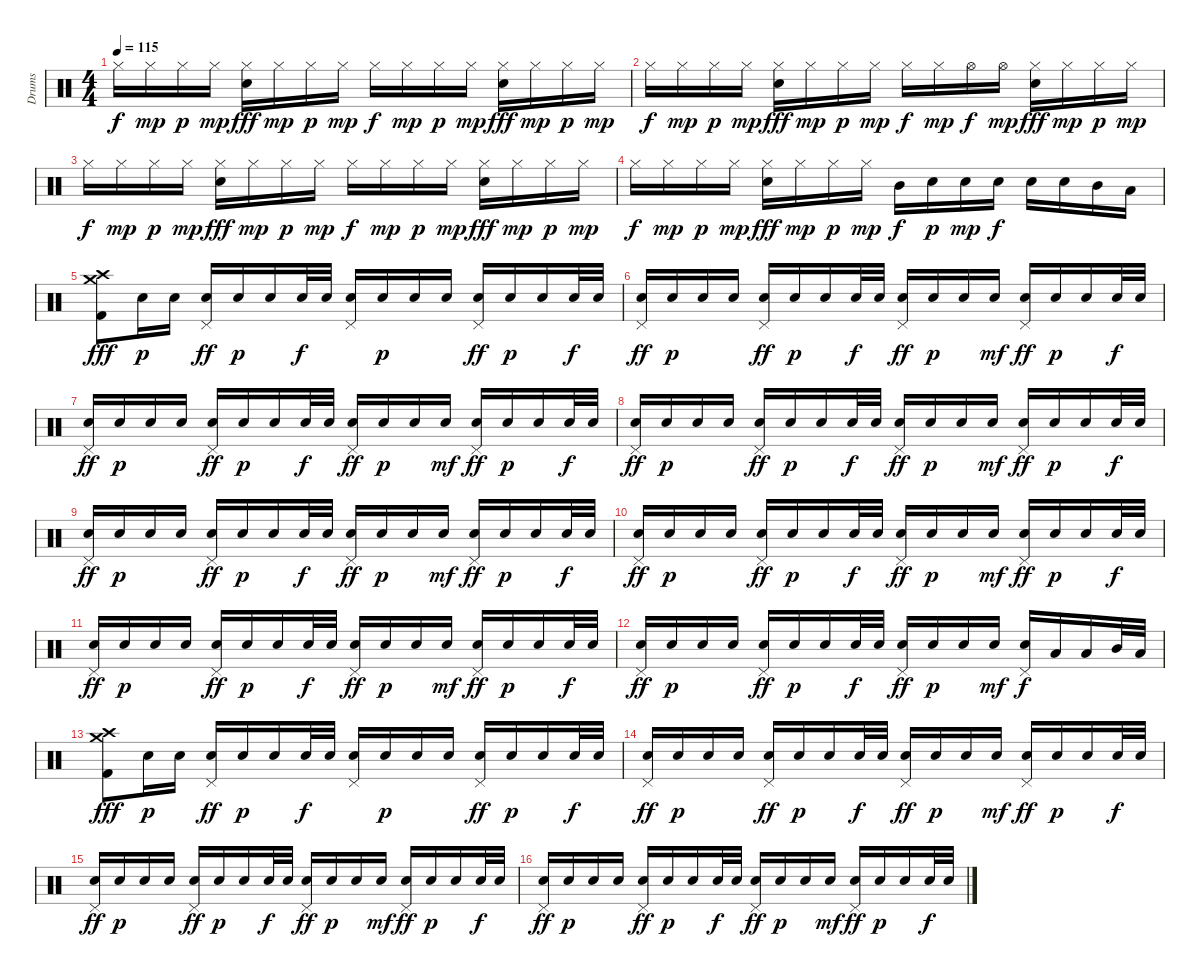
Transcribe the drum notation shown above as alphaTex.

\track ("Drums" "Drums") {instrument percussion}
\staff {score}
\articulation defaults
\ts (4 4)
\tempo 115
\clef neutral
\ks c "Hi-Hat (closed)".16{dy f} "Hi-Hat (closed)".16{dy mp} "Hi-Hat (closed)".16{dy p} "Hi-Hat (closed)".16{dy mp}
("Hi-Hat (closed)" "Electric Snare (hit)").16{dy fff} "Hi-Hat (closed)".16{dy mp} "Hi-Hat (closed)".16{dy p} "Hi-Hat (closed)".16{dy mp} "Hi-Hat (closed)".16{dy f} "Hi-Hat (closed)".16{dy mp} "Hi-Hat (closed)".16{dy p} "Hi-Hat (closed)".16{dy mp} ("Hi-Hat (closed)" "Electric Snare (hit)").16{dy fff} "Hi-Hat (closed)".16{dy mp} "Hi-Hat (closed)".16{dy p} "Hi-Hat (closed)".16{dy mp} |
"Hi-Hat (closed)".16{dy f} "Hi-Hat (closed)".16{dy mp} "Hi-Hat (closed)".16{dy p} "Hi-Hat (closed)".16{dy mp} ("Hi-Hat (closed)" "Electric Snare (hit)").16{dy fff} "Hi-Hat (closed)".16{dy mp} "Hi-Hat (closed)".16{dy p} "Hi-Hat (closed)".16{dy mp} "Hi-Hat (closed)".16{dy f} "Hi-Hat (closed)".16{dy mp} "Hi-Hat (open)".16{dy f} "Hi-Hat (open)".16{dy mp} ("Hi-Hat (closed)" "Electric Snare (hit)").16{dy fff} "Hi-Hat (closed)".16{dy mp} "Hi-Hat (closed)".16{dy p} "Hi-Hat (closed)".16{dy mp} |
"Hi-Hat (closed)".16{dy f} "Hi-Hat (closed)".16{dy mp} "Hi-Hat (closed)".16{dy p} "Hi-Hat (closed)".16{dy mp} ("Hi-Hat (closed)" "Electric Snare (hit)").16{dy fff} "Hi-Hat (closed)".16{dy mp} "Hi-Hat (closed)".16{dy p} "Hi-Hat (closed)".16{dy mp} "Hi-Hat (closed)".16{dy f} "Hi-Hat (closed)".16{dy mp} "Hi-Hat (closed)".16{dy p} "Hi-Hat (closed)".16{dy mp} ("Hi-Hat (closed)" "Electric Snare (hit)").16{dy fff} "Hi-Hat (closed)".16{dy mp} "Hi-Hat (closed)".16{dy p} "Hi-Hat (closed)".16{dy mp} |
"Hi-Hat (closed)".16{dy f} "Hi-Hat (closed)".16{dy mp} "Hi-Hat (closed)".16{dy p} "Hi-Hat (closed)".16{dy mp} ("Hi-Hat (closed)" "Electric Snare (hit)").16{dy fff} "Hi-Hat (closed)".16{dy mp} "Hi-Hat (closed)".16{dy p} "Hi-Hat (closed)".16{dy mp} "Mid Tom (hit)".16{dy f} "Electric Snare (hit)".16{dy p} "Electric Snare (hit)".16{dy mp} "Electric Snare (hit)".16{dy f} "Electric Snare (hit)".16 "Electric Snare (hit)".16 "Mid Tom (hit)".16 "Low Tom (hit)".16 |
("Crash high (hit)" "Crash medium (hit)" "Kick (hit) 2").8{dy fff} "Electric Snare (hit)".16{dy p} "Electric Snare (hit)".16 ("Pedal Hi-Hat (hit)" "Electric Snare (hit)").16{dy ff} "Electric Snare (hit)".16{dy p} "Electric Snare (hit)".16 "Electric Snare (hit)".32{dy f} "Electric Snare (hit)".32 ("Pedal Hi-Hat (hit)" "Electric Snare (hit)").16 "Electric Snare (hit)".16{dy p} "Electric Snare (hit)".16 "Electric Snare (hit)".16 ("Pedal Hi-Hat (hit)" "Electric Snare (hit)").16{dy ff} "Electric Snare (hit)".16{dy p} "Electric Snare (hit)".16 "Electric Snare (hit)".32{dy f} "Electric Snare (hit)".32 |
("Pedal Hi-Hat (hit)" "Electric Snare (hit)").16{dy ff} "Electric Snare (hit)".16{dy p} "Electric Snare (hit)".16 "Electric Snare (hit)".16 ("Pedal Hi-Hat (hit)" "Electric Snare (hit)").16{dy ff} "Electric Snare (hit)".16{dy p} "Electric Snare (hit)".16 "Electric Snare (hit)".32{dy f} "Electric Snare (hit)".32 ("Pedal Hi-Hat (hit)" "Electric Snare (hit)").16{dy ff} "Electric Snare (hit)".16{dy p} "Electric Snare (hit)".16 "Electric Snare (hit)".16{dy mf} ("Pedal Hi-Hat (hit)" "Electric Snare (hit)").16{dy ff} "Electric Snare (hit)".16{dy p} "Electric Snare (hit)".16 "Electric Snare (hit)".32{dy f} "Electric Snare (hit)".32 |
("Pedal Hi-Hat (hit)" "Electric Snare (hit)").16{dy ff} "Electric Snare (hit)".16{dy p} "Electric Snare (hit)".16 "Electric Snare (hit)".16 ("Pedal Hi-Hat (hit)" "Electric Snare (hit)").16{dy ff} "Electric Snare (hit)".16{dy p} "Electric Snare (hit)".16 "Electric Snare (hit)".32{dy f} "Electric Snare (hit)".32 ("Pedal Hi-Hat (hit)" "Electric Snare (hit)").16{dy ff} "Electric Snare (hit)".16{dy p} "Electric Snare (hit)".16 "Electric Snare (hit)".16{dy mf} ("Pedal Hi-Hat (hit)" "Electric Snare (hit)").16{dy ff} "Electric Snare (hit)".16{dy p} "Electric Snare (hit)".16 "Electric Snare (hit)".32{dy f} "Electric Snare (hit)".32 |
("Pedal Hi-Hat (hit)" "Electric Snare (hit)").16{dy ff} "Electric Snare (hit)".16{dy p} "Electric Snare (hit)".16 "Electric Snare (hit)".16 ("Pedal Hi-Hat (hit)" "Electric Snare (hit)").16{dy ff} "Electric Snare (hit)".16{dy p} "Electric Snare (hit)".16 "Electric Snare (hit)".32{dy f} "Electric Snare (hit)".32 ("Pedal Hi-Hat (hit)" "Electric Snare (hit)").16{dy ff} "Electric Snare (hit)".16{dy p} "Electric Snare (hit)".16 "Electric Snare (hit)".16{dy mf} ("Pedal Hi-Hat (hit)" "Electric Snare (hit)").16{dy ff} "Electric Snare (hit)".16{dy p} "Electric Snare (hit)".16 "Electric Snare (hit)".32{dy f} "Electric Snare (hit)".32 |
("Pedal Hi-Hat (hit)" "Electric Snare (hit)").16{dy ff} "Electric Snare (hit)".16{dy p} "Electric Snare (hit)".16 "Electric Snare (hit)".16 ("Pedal Hi-Hat (hit)" "Electric Snare (hit)").16{dy ff} "Electric Snare (hit)".16{dy p} "Electric Snare (hit)".16 "Electric Snare (hit)".32{dy f} "Electric Snare (hit)".32 ("Pedal Hi-Hat (hit)" "Electric Snare (hit)").16{dy ff} "Electric Snare (hit)".16{dy p} "Electric Snare (hit)".16 "Electric Snare (hit)".16{dy mf} ("Pedal Hi-Hat (hit)" "Electric Snare (hit)").16{dy ff} "Electric Snare (hit)".16{dy p} "Electric Snare (hit)".16 "Electric Snare (hit)".32{dy f} "Electric Snare (hit)".32 |
("Pedal Hi-Hat (hit)" "Electric Snare (hit)").16{dy ff} "Electric Snare (hit)".16{dy p} "Electric Snare (hit)".16 "Electric Snare (hit)".16 ("Pedal Hi-Hat (hit)" "Electric Snare (hit)").16{dy ff} "Electric Snare (hit)".16{dy p} "Electric Snare (hit)".16 "Electric Snare (hit)".32{dy f} "Electric Snare (hit)".32 ("Pedal Hi-Hat (hit)" "Electric Snare (hit)").16{dy ff} "Electric Snare (hit)".16{dy p} "Electric Snare (hit)".16 "Electric Snare (hit)".16{dy mf} ("Pedal Hi-Hat (hit)" "Electric Snare (hit)").16{dy ff} "Electric Snare (hit)".16{dy p} "Electric Snare (hit)".16 "Electric Snare (hit)".32{dy f} "Electric Snare (hit)".32 |
("Pedal Hi-Hat (hit)" "Electric Snare (hit)").16{dy ff} "Electric Snare (hit)".16{dy p} "Electric Snare (hit)".16 "Electric Snare (hit)".16 ("Pedal Hi-Hat (hit)" "Electric Snare (hit)").16{dy ff} "Electric Snare (hit)".16{dy p} "Electric Snare (hit)".16 "Electric Snare (hit)".32{dy f} "Electric Snare (hit)".32 ("Pedal Hi-Hat (hit)" "Electric Snare (hit)").16{dy ff} "Electric Snare (hit)".16{dy p} "Electric Snare (hit)".16 "Electric Snare (hit)".16{dy mf} ("Pedal Hi-Hat (hit)" "Electric Snare (hit)").16{dy ff} "Electric Snare (hit)".16{dy p} "Electric Snare (hit)".16 "Electric Snare (hit)".32{dy f} "Electric Snare (hit)".32 |
("Pedal Hi-Hat (hit)" "Electric Snare (hit)").16{dy ff} "Electric Snare (hit)".16{dy p} "Electric Snare (hit)".16 "Electric Snare (hit)".16 ("Pedal Hi-Hat (hit)" "Electric Snare (hit)").16{dy ff} "Electric Snare (hit)".16{dy p} "Electric Snare (hit)".16 "Electric Snare (hit)".32{dy f} "Electric Snare (hit)".32 ("Pedal Hi-Hat (hit)" "Electric Snare (hit)").16{dy ff} "Electric Snare (hit)".16{dy p} "Electric Snare (hit)".16 "Electric Snare (hit)".16{dy mf} ("Pedal Hi-Hat (hit)" "Electric Snare (hit)").16{dy f} "Low Tom (hit)".16 "Low Tom (hit)".16 "Mid Tom (hit)".32 "Low Tom (hit)".32 |
("Crash high (hit)" "Crash medium (hit)" "Kick (hit) 2").8{dy fff} "Electric Snare (hit)".16{dy p} "Electric Snare (hit)".16 ("Pedal Hi-Hat (hit)" "Electric Snare (hit)").16{dy ff} "Electric Snare (hit)".16{dy p} "Electric Snare (hit)".16 "Electric Snare (hit)".32{dy f} "Electric Snare (hit)".32 ("Pedal Hi-Hat (hit)" "Electric Snare (hit)").16 "Electric Snare (hit)".16{dy p} "Electric Snare (hit)".16 "Electric Snare (hit)".16 ("Pedal Hi-Hat (hit)" "Electric Snare (hit)").16{dy ff} "Electric Snare (hit)".16{dy p} "Electric Snare (hit)".16 "Electric Snare (hit)".32{dy f} "Electric Snare (hit)".32 |
("Pedal Hi-Hat (hit)" "Electric Snare (hit)").16{dy ff} "Electric Snare (hit)".16{dy p} "Electric Snare (hit)".16 "Electric Snare (hit)".16 ("Pedal Hi-Hat (hit)" "Electric Snare (hit)").16{dy ff} "Electric Snare (hit)".16{dy p} "Electric Snare (hit)".16 "Electric Snare (hit)".32{dy f} "Electric Snare (hit)".32 ("Pedal Hi-Hat (hit)" "Electric Snare (hit)").16{dy ff} "Electric Snare (hit)".16{dy p} "Electric Snare (hit)".16 "Electric Snare (hit)".16{dy mf} ("Pedal Hi-Hat (hit)" "Electric Snare (hit)").16{dy ff} "Electric Snare (hit)".16{dy p} "Electric Snare (hit)".16 "Electric Snare (hit)".32{dy f} "Electric Snare (hit)".32 |
("Pedal Hi-Hat (hit)" "Electric Snare (hit)").16{dy ff} "Electric Snare (hit)".16{dy p} "Electric Snare (hit)".16 "Electric Snare (hit)".16 ("Pedal Hi-Hat (hit)" "Electric Snare (hit)").16{dy ff} "Electric Snare (hit)".16{dy p} "Electric Snare (hit)".16 "Electric Snare (hit)".32{dy f} "Electric Snare (hit)".32 ("Pedal Hi-Hat (hit)" "Electric Snare (hit)").16{dy ff} "Electric Snare (hit)".16{dy p} "Electric Snare (hit)".16 "Electric Snare (hit)".16{dy mf} ("Pedal Hi-Hat (hit)" "Electric Snare (hit)").16{dy ff} "Electric Snare (hit)".16{dy p} "Electric Snare (hit)".16 "Electric Snare (hit)".32{dy f} "Electric Snare (hit)".32 |
("Pedal Hi-Hat (hit)" "Electric Snare (hit)").16{dy ff} "Electric Snare (hit)".16{dy p} "Electric Snare (hit)".16 "Electric Snare (hit)".16 ("Pedal Hi-Hat (hit)" "Electric Snare (hit)").16{dy ff} "Electric Snare (hit)".16{dy p} "Electric Snare (hit)".16 "Electric Snare (hit)".32{dy f} "Electric Snare (hit)".32 ("Pedal Hi-Hat (hit)" "Electric Snare (hit)").16{dy ff} "Electric Snare (hit)".16{dy p} "Electric Snare (hit)".16 "Electric Snare (hit)".16{dy mf} ("Pedal Hi-Hat (hit)" "Electric Snare (hit)").16{dy ff} "Electric Snare (hit)".16{dy p} "Electric Snare (hit)".16 "Electric Snare (hit)".32{dy f} "Electric Snare (hit)".32
